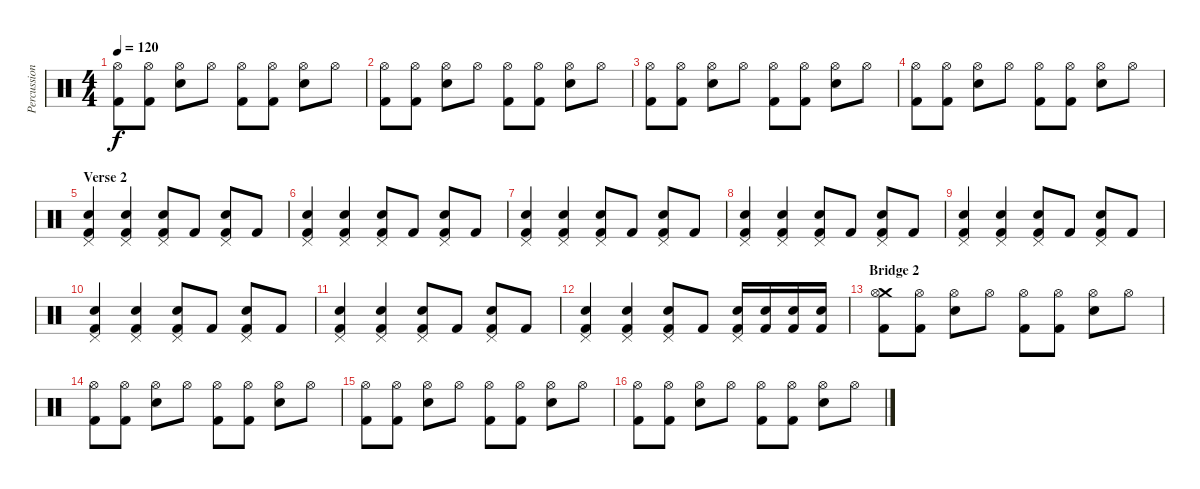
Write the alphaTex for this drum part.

\track ("Percussions" "Percussion") {instrument percussion}
\staff {score}
\articulation defaults
\ts (4 4)
\tempo 120
\clef neutral
\ks c
("Hi-Hat (open)" "Kick (hit) 2").8{dy f} ("Hi-Hat (open)" "Kick (hit) 2").8 ("Hi-Hat (open)" "Electric Snare (hit)").8 "Hi-Hat (open)".8 ("Hi-Hat (open)" "Kick (hit) 2").8 ("Hi-Hat (open)" "Kick (hit) 2").8 ("Hi-Hat (open)" "Electric Snare (hit)").8 "Hi-Hat (open)".8 |
("Hi-Hat (open)" "Kick (hit) 2").8 ("Hi-Hat (open)" "Kick (hit) 2").8 ("Hi-Hat (open)" "Electric Snare (hit)").8 "Hi-Hat (open)".8 ("Hi-Hat (open)" "Kick (hit) 2").8 ("Hi-Hat (open)" "Kick (hit) 2").8 ("Hi-Hat (open)" "Electric Snare (hit)").8 "Hi-Hat (open)".8 |
("Hi-Hat (open)" "Kick (hit) 2").8 ("Hi-Hat (open)" "Kick (hit) 2").8 ("Hi-Hat (open)" "Electric Snare (hit)").8 "Hi-Hat (open)".8 ("Hi-Hat (open)" "Kick (hit) 2").8 ("Hi-Hat (open)" "Kick (hit) 2").8 ("Hi-Hat (open)" "Electric Snare (hit)").8 "Hi-Hat (open)".8 |
("Hi-Hat (open)" "Kick (hit) 2").8 ("Hi-Hat (open)" "Kick (hit) 2").8 ("Hi-Hat (open)" "Electric Snare (hit)").8 "Hi-Hat (open)".8 ("Hi-Hat (open)" "Kick (hit) 2").8 ("Hi-Hat (open)" "Kick (hit) 2").8 ("Hi-Hat (open)" "Electric Snare (hit)").8 "Hi-Hat (open)".8 |
\section ("" "Verse 2")
("Pedal Hi-Hat (hit)" "Electric Snare (hit)" "Kick (hit) 2").4 ("Pedal Hi-Hat (hit)" "Electric Snare (hit)" "Kick (hit) 2").4 ("Pedal Hi-Hat (hit)" "Electric Snare (hit)" "Kick (hit) 2").8 "Kick (hit) 2".8 ("Pedal Hi-Hat (hit)" "Electric Snare (hit)" "Kick (hit) 2").8 "Kick (hit) 2".8 |
("Pedal Hi-Hat (hit)" "Electric Snare (hit)" "Kick (hit) 2").4 ("Pedal Hi-Hat (hit)" "Electric Snare (hit)" "Kick (hit) 2").4 ("Pedal Hi-Hat (hit)" "Electric Snare (hit)" "Kick (hit) 2").8 "Kick (hit) 2".8 ("Pedal Hi-Hat (hit)" "Electric Snare (hit)" "Kick (hit) 2").8 "Kick (hit) 2".8 |
("Pedal Hi-Hat (hit)" "Electric Snare (hit)" "Kick (hit) 2").4 ("Pedal Hi-Hat (hit)" "Electric Snare (hit)" "Kick (hit) 2").4 ("Pedal Hi-Hat (hit)" "Electric Snare (hit)" "Kick (hit) 2").8 "Kick (hit) 2".8 ("Pedal Hi-Hat (hit)" "Electric Snare (hit)" "Kick (hit) 2").8 "Kick (hit) 2".8 |
("Pedal Hi-Hat (hit)" "Electric Snare (hit)" "Kick (hit) 2").4 ("Pedal Hi-Hat (hit)" "Electric Snare (hit)" "Kick (hit) 2").4 ("Pedal Hi-Hat (hit)" "Electric Snare (hit)" "Kick (hit) 2").8 "Kick (hit) 2".8 ("Pedal Hi-Hat (hit)" "Electric Snare (hit)" "Kick (hit) 2").8 "Kick (hit) 2".8 |
("Pedal Hi-Hat (hit)" "Electric Snare (hit)" "Kick (hit) 2").4 ("Pedal Hi-Hat (hit)" "Electric Snare (hit)" "Kick (hit) 2").4 ("Pedal Hi-Hat (hit)" "Electric Snare (hit)" "Kick (hit) 2").8 "Kick (hit) 2".8 ("Pedal Hi-Hat (hit)" "Electric Snare (hit)" "Kick (hit) 2").8 "Kick (hit) 2".8 |
("Pedal Hi-Hat (hit)" "Electric Snare (hit)" "Kick (hit) 2").4 ("Pedal Hi-Hat (hit)" "Electric Snare (hit)" "Kick (hit) 2").4 ("Pedal Hi-Hat (hit)" "Electric Snare (hit)" "Kick (hit) 2").8 "Kick (hit) 2".8 ("Pedal Hi-Hat (hit)" "Electric Snare (hit)" "Kick (hit) 2").8 "Kick (hit) 2".8 |
("Pedal Hi-Hat (hit)" "Electric Snare (hit)" "Kick (hit) 2").4 ("Pedal Hi-Hat (hit)" "Electric Snare (hit)" "Kick (hit) 2").4 ("Pedal Hi-Hat (hit)" "Electric Snare (hit)" "Kick (hit) 2").8 "Kick (hit) 2".8 ("Pedal Hi-Hat (hit)" "Electric Snare (hit)" "Kick (hit) 2").8 "Kick (hit) 2".8 |
("Pedal Hi-Hat (hit)" "Electric Snare (hit)" "Kick (hit) 2").4 ("Pedal Hi-Hat (hit)" "Electric Snare (hit)" "Kick (hit) 2").4 ("Pedal Hi-Hat (hit)" "Electric Snare (hit)" "Kick (hit) 2").8 "Kick (hit) 2".8 ("Pedal Hi-Hat (hit)" "Electric Snare (hit)" "Kick (hit) 2").16 ("Electric Snare (hit)" "Kick (hit) 2").16 ("Electric Snare (hit)" "Kick (hit) 2").16 ("Electric Snare (hit)" "Kick (hit) 2").16 |
\section ("" "Bridge 2")
("Crash medium (hit)" "Hi-Hat (open)" "Kick (hit) 2").8 ("Hi-Hat (open)" "Kick (hit) 2").8 ("Hi-Hat (open)" "Electric Snare (hit)").8 "Hi-Hat (open)".8 ("Hi-Hat (open)" "Kick (hit) 2").8 ("Hi-Hat (open)" "Kick (hit) 2").8 ("Hi-Hat (open)" "Electric Snare (hit)").8 "Hi-Hat (open)".8 |
("Hi-Hat (open)" "Kick (hit) 2").8 ("Hi-Hat (open)" "Kick (hit) 2").8 ("Hi-Hat (open)" "Electric Snare (hit)").8 "Hi-Hat (open)".8 ("Hi-Hat (open)" "Kick (hit) 2").8 ("Hi-Hat (open)" "Kick (hit) 2").8 ("Hi-Hat (open)" "Electric Snare (hit)").8 "Hi-Hat (open)".8 |
("Hi-Hat (open)" "Kick (hit) 2").8 ("Hi-Hat (open)" "Kick (hit) 2").8 ("Hi-Hat (open)" "Electric Snare (hit)").8 "Hi-Hat (open)".8 ("Hi-Hat (open)" "Kick (hit) 2").8 ("Hi-Hat (open)" "Kick (hit) 2").8 ("Hi-Hat (open)" "Electric Snare (hit)").8 "Hi-Hat (open)".8 |
("Hi-Hat (open)" "Kick (hit) 2").8 ("Hi-Hat (open)" "Kick (hit) 2").8 ("Hi-Hat (open)" "Electric Snare (hit)").8 "Hi-Hat (open)".8 ("Hi-Hat (open)" "Kick (hit) 2").8 ("Hi-Hat (open)" "Kick (hit) 2").8 ("Hi-Hat (open)" "Electric Snare (hit)").8 "Hi-Hat (open)".8
